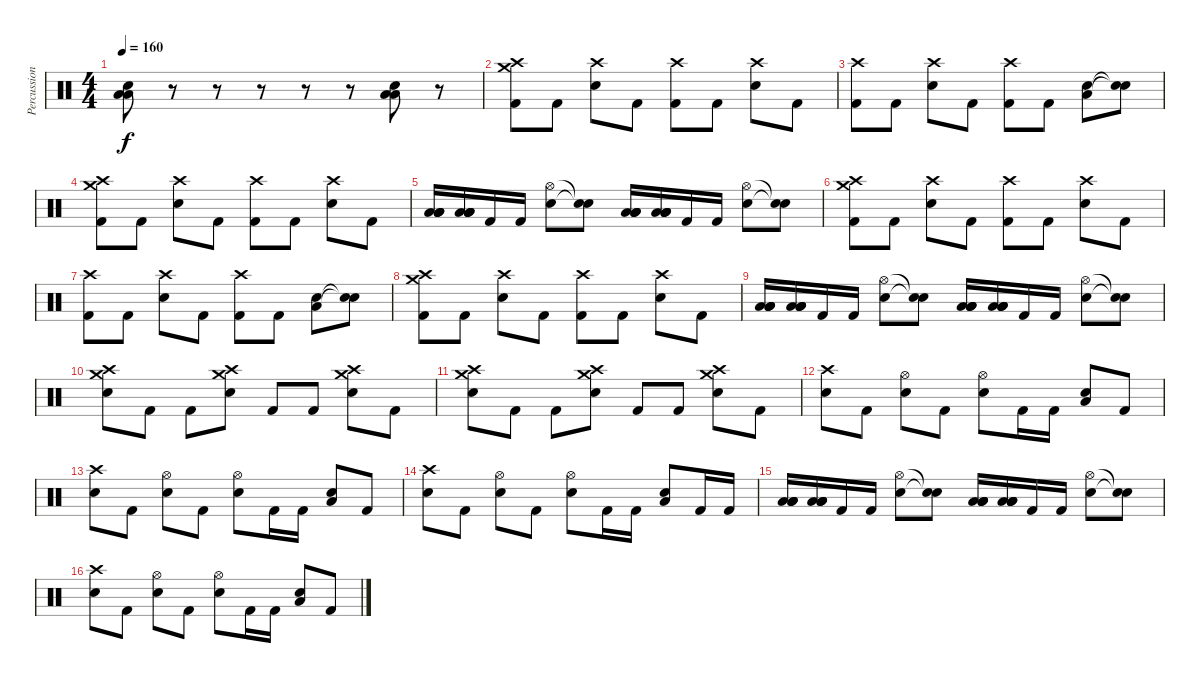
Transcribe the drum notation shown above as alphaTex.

\track ("Percussion" "Percussion") {instrument percussion}
\staff {score}
\articulation defaults
\ts (4 4)
\tempo 160
\clef neutral
\ks c
("Low Floor Tom (hit)" "Low Floor Tom (hit)" "Snare (hit) 2").8{dy f} r.8 r.8 r.8 r.8 r.8 ("Low Floor Tom (hit)" "Low Floor Tom (hit)" "Snare (hit) 2").8 r.8 |
("Crash high (hit)" "Crash medium (hit)" "Kick (hit) 2").8 "Kick (hit) 2".8 ("Crash high (hit)" "Snare (hit) 2").8 "Kick (hit) 2".8 ("Crash high (hit)" "Kick (hit) 2").8 "Kick (hit) 2".8 ("Crash high (hit)" "Snare (hit) 2").8 "Kick (hit) 2".8 |
("Crash high (hit)" "Kick (hit) 2").8 "Kick (hit) 2".8 ("Crash high (hit)" "Snare (hit) 2").8 "Kick (hit) 2".8 ("Crash high (hit)" "Kick (hit) 2").8 "Kick (hit) 2".8 ("Low Floor Tom (hit)" "Snare (hit) 2").8 ("Snare (hit)"{t} "Snare (hit)"{t}).8 |
("Crash high (hit)" "Crash medium (hit)" "Kick (hit) 2").8 "Kick (hit) 2".8 ("Crash high (hit)" "Snare (hit) 2").8 "Kick (hit) 2".8 ("Crash high (hit)" "Kick (hit) 2").8 "Kick (hit) 2".8 ("Crash high (hit)" "Snare (hit) 2").8 "Kick (hit) 2".8 |
("Low Floor Tom (hit)" "Low Floor Tom (hit)" "Low Floor Tom (hit)" "Low Floor Tom (hit)").16 ("Low Floor Tom (hit)" "Low Floor Tom (hit)" "Low Floor Tom (hit)" "Low Floor Tom (hit)").16 "Kick (hit) 2".16 "Kick (hit) 2".16 ("Hi-Hat (open)" "Snare (hit) 2").8 ("Snare (hit)"{t} "Snare (hit)"{t}).8 ("Low Floor Tom (hit)" "Low Floor Tom (hit)" "Low Floor Tom (hit)" "Low Floor Tom (hit)").16 ("Low Floor Tom (hit)" "Low Floor Tom (hit)" "Low Floor Tom (hit)" "Low Floor Tom (hit)").16 "Kick (hit) 2".16 "Kick (hit) 2".16 ("Hi-Hat (open)" "Snare (hit) 2").8 ("Snare (hit)"{t} "Snare (hit)"{t}).8 |
("Crash high (hit)" "Crash medium (hit)" "Kick (hit) 2").8 "Kick (hit) 2".8 ("Crash high (hit)" "Snare (hit) 2").8 "Kick (hit) 2".8 ("Crash high (hit)" "Kick (hit) 2").8 "Kick (hit) 2".8 ("Crash high (hit)" "Snare (hit) 2").8 "Kick (hit) 2".8 |
("Crash high (hit)" "Kick (hit) 2").8 "Kick (hit) 2".8 ("Crash high (hit)" "Snare (hit) 2").8 "Kick (hit) 2".8 ("Crash high (hit)" "Kick (hit) 2").8 "Kick (hit) 2".8 ("Low Floor Tom (hit)" "Snare (hit) 2").8 ("Snare (hit)"{t} "Snare (hit)"{t}).8 |
("Crash high (hit)" "Crash medium (hit)" "Kick (hit) 2").8 "Kick (hit) 2".8 ("Crash high (hit)" "Snare (hit) 2").8 "Kick (hit) 2".8 ("Crash high (hit)" "Kick (hit) 2").8 "Kick (hit) 2".8 ("Crash high (hit)" "Snare (hit) 2").8 "Kick (hit) 2".8 |
("Low Floor Tom (hit)" "Low Floor Tom (hit)" "Low Floor Tom (hit)" "Low Floor Tom (hit)").16 ("Low Floor Tom (hit)" "Low Floor Tom (hit)" "Low Floor Tom (hit)" "Low Floor Tom (hit)").16 "Kick (hit) 2".16 "Kick (hit) 2".16 ("Hi-Hat (open)" "Snare (hit) 2").8 ("Snare (hit)"{t} "Snare (hit)"{t}).8 ("Low Floor Tom (hit)" "Low Floor Tom (hit)" "Low Floor Tom (hit)" "Low Floor Tom (hit)").16 ("Low Floor Tom (hit)" "Low Floor Tom (hit)" "Low Floor Tom (hit)" "Low Floor Tom (hit)").16 "Kick (hit) 2".16 "Kick (hit) 2".16 ("Hi-Hat (open)" "Snare (hit) 2").8 ("Snare (hit)"{t} "Snare (hit)"{t}).8 |
("Crash high (hit)" "Crash medium (hit)" "Snare (hit) 2").8 "Kick (hit) 2".8 "Kick (hit) 2".8 ("Crash high (hit)" "Crash medium (hit)" "Snare (hit) 2").8 "Kick (hit) 2".8 "Kick (hit) 2".8 ("Crash high (hit)" "Crash medium (hit)" "Snare (hit) 2").8 "Kick (hit) 2".8 |
("Crash high (hit)" "Crash medium (hit)" "Snare (hit) 2").8 "Kick (hit) 2".8 "Kick (hit) 2".8 ("Crash high (hit)" "Crash medium (hit)" "Snare (hit) 2").8 "Kick (hit) 2".8 "Kick (hit) 2".8 ("Crash high (hit)" "Crash medium (hit)" "Snare (hit) 2").8 "Kick (hit) 2".8 |
("Crash high (hit)" "Snare (hit) 2").8 "Kick (hit) 2".8 ("Hi-Hat (open)" "Snare (hit) 2").8 "Kick (hit) 2".8 ("Hi-Hat (open)" "Snare (hit) 2").8 "Kick (hit) 2".16 "Kick (hit) 2".16 ("Low Floor Tom (hit)" "Snare (hit) 2").8 "Kick (hit) 2".8 |
("Crash high (hit)" "Snare (hit) 2").8 "Kick (hit) 2".8 ("Hi-Hat (open)" "Snare (hit) 2").8 "Kick (hit) 2".8 ("Hi-Hat (open)" "Snare (hit) 2").8 "Kick (hit) 2".16 "Kick (hit) 2".16 ("Low Floor Tom (hit)" "Snare (hit) 2").8 "Kick (hit) 2".8 |
("Crash high (hit)" "Snare (hit) 2").8 "Kick (hit) 2".8 ("Hi-Hat (open)" "Snare (hit) 2").8 "Kick (hit) 2".8 ("Hi-Hat (open)" "Snare (hit) 2").8 "Kick (hit) 2".16 "Kick (hit) 2".16 ("Low Floor Tom (hit)" "Snare (hit) 2").8 "Kick (hit) 2".16 "Kick (hit) 2".16 |
("Low Floor Tom (hit)" "Low Floor Tom (hit)" "Low Floor Tom (hit)" "Low Floor Tom (hit)").16 ("Low Floor Tom (hit)" "Low Floor Tom (hit)" "Low Floor Tom (hit)" "Low Floor Tom (hit)").16 "Kick (hit) 2".16 "Kick (hit) 2".16 ("Hi-Hat (open)" "Snare (hit) 2").8 ("Snare (hit)"{t} "Snare (hit)"{t}).8 ("Low Floor Tom (hit)" "Low Floor Tom (hit)" "Low Floor Tom (hit)" "Low Floor Tom (hit)").16 ("Low Floor Tom (hit)" "Low Floor Tom (hit)" "Low Floor Tom (hit)" "Low Floor Tom (hit)").16 "Kick (hit) 2".16 "Kick (hit) 2".16 ("Hi-Hat (open)" "Snare (hit) 2").8 ("Snare (hit)"{t} "Snare (hit)"{t}).8 |
("Crash high (hit)" "Snare (hit) 2").8 "Kick (hit) 2".8 ("Hi-Hat (open)" "Snare (hit) 2").8 "Kick (hit) 2".8 ("Hi-Hat (open)" "Snare (hit) 2").8 "Kick (hit) 2".16 "Kick (hit) 2".16 ("Low Floor Tom (hit)" "Snare (hit) 2").8 "Kick (hit) 2".8
